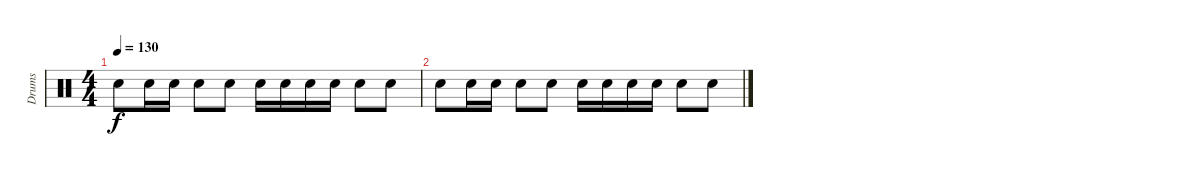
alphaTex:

\track ("Drums" "Drums") {instrument percussion}
\staff {score}
\articulation defaults
\ts (4 4)
\tempo 130
\clef neutral
\ks c "Snare (hit) 2".8{dy f} "Snare (hit) 2".16 "Snare (hit) 2".16 "Snare (hit) 2".8 "Snare (hit) 2".8 "Snare (hit) 2".16 "Snare (hit) 2".16 "Snare (hit) 2".16 "Snare (hit) 2".16 "Snare (hit) 2".8 "Snare (hit) 2".8
|
"Snare (hit) 2".8 "Snare (hit) 2".16 "Snare (hit) 2".16 "Snare (hit) 2".8 "Snare (hit) 2".8 "Snare (hit) 2".16 "Snare (hit) 2".16 "Snare (hit) 2".16 "Snare (hit) 2".16 "Snare (hit) 2".8 "Snare (hit) 2".8
